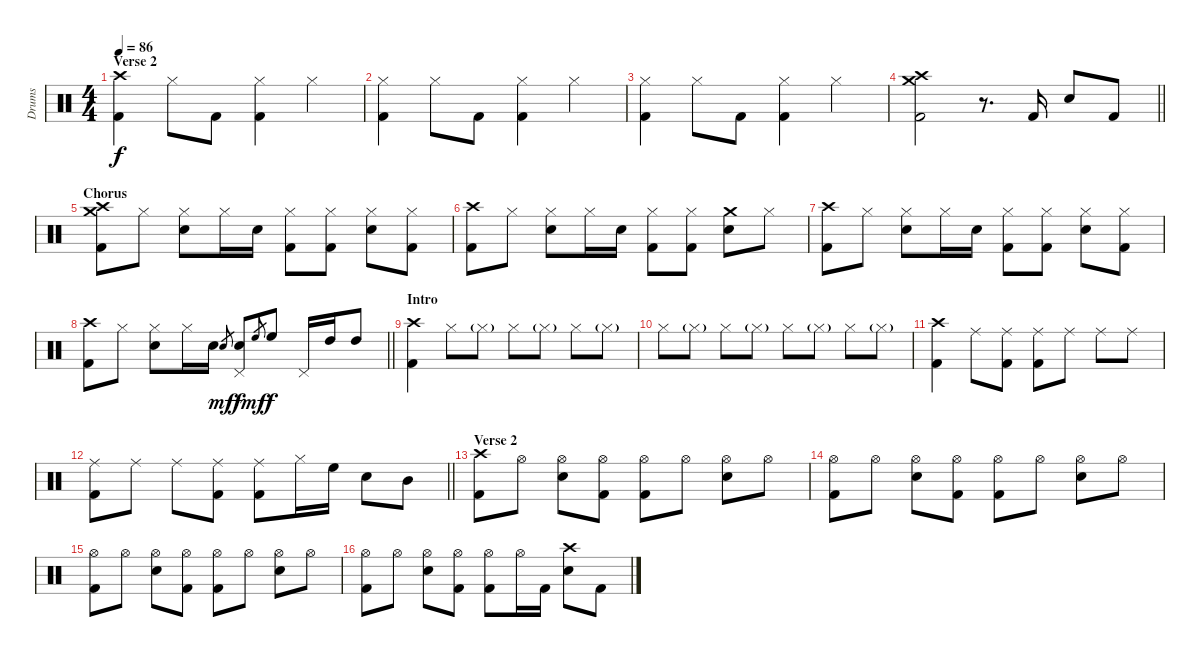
\track ("Drums" "Drums") {instrument percussion}
\staff {score}
\articulation defaults
\ts (4 4)
\section ("" "Verse 2")
\tempo 86
\clef neutral
\ks c
("Crash high (hit)" "Kick (hit) 2").4{dy f} "Hi-Hat (closed)".8 "Kick (hit) 2".8 ("Hi-Hat (closed)" "Kick (hit) 2").4 "Hi-Hat (closed)".4 |
("Hi-Hat (closed)" "Kick (hit) 2").4 "Hi-Hat (closed)".8 "Kick (hit) 2".8 ("Hi-Hat (closed)" "Kick (hit) 2").4 "Hi-Hat (closed)".4 |
("Hi-Hat (closed)" "Kick (hit) 2").4 "Hi-Hat (closed)".8 "Kick (hit) 2".8 ("Hi-Hat (closed)" "Kick (hit) 2").4 "Hi-Hat (closed)".4 |
\barLineRight lightlight
("Crash high (hit)" "Crash medium (hit)" "Kick (hit) 2").2 r.8{d} "Kick (hit) 2".16 "Snare (hit) 2".8 "Kick (hit) 2".8 |
\section ("" "Chorus")
("Crash high (hit)" "Crash medium (hit)" "Kick (hit) 2").8 "Hi-Hat (closed)".8 ("Hi-Hat (closed)" "Snare (hit) 2").8 "Hi-Hat (closed)".16 "Snare (hit) 2".16 ("Hi-Hat (closed)" "Kick (hit) 2").8 ("Hi-Hat (closed)" "Kick (hit) 2").8 ("Hi-Hat (closed)" "Snare (hit) 2").8 ("Hi-Hat (closed)" "Kick (hit) 2").8 |
("Crash high (hit)" "Kick (hit) 2").8 "Hi-Hat (closed)".8 ("Hi-Hat (closed)" "Snare (hit) 2").8 "Hi-Hat (closed)".16 "Snare (hit) 2".16 ("Hi-Hat (closed)" "Kick (hit) 2").8 ("Hi-Hat (closed)" "Kick (hit) 2").8 ("Crash medium (hit)" "Snare (hit) 2").8 "Hi-Hat (closed)".8 |
("Crash high (hit)" "Kick (hit) 2").8 "Hi-Hat (closed)".8 ("Hi-Hat (closed)" "Snare (hit) 2").8 "Hi-Hat (closed)".16 "Snare (hit) 2".16 ("Hi-Hat (closed)" "Kick (hit) 2").8 ("Hi-Hat (closed)" "Kick (hit) 2").8 ("Hi-Hat (closed)" "Snare (hit) 2").8 ("Hi-Hat (closed)" "Kick (hit) 2").8 |
\barLineRight lightlight
("Crash high (hit)" "Kick (hit) 2").8 "Hi-Hat (closed)".8 ("Hi-Hat (closed)" "Snare (hit) 2").8 "Hi-Hat (closed)".16 "Snare (hit) 2".16 "Snare (hit) 2".8{gr dy mf} ("Pedal Hi-Hat (hit)" "Snare (hit) 2").8{dy f} "High Floor Tom (hit)".8{gr dy mf} "High Floor Tom (hit)".8{dy f} "Pedal Hi-Hat (hit)".16 "High Tom (hit)".16 "High Tom (hit)".8 |
\section ("" "Intro")
("Crash high (hit)" "Kick (hit) 2").4 "Hi-Hat (closed)".8 "Hi-Hat (closed)"{g}.8 "Hi-Hat (closed)".8 "Hi-Hat (closed)"{g}.8 "Hi-Hat (closed)".8 "Hi-Hat (closed)"{g}.8 |
"Hi-Hat (closed)".8 "Hi-Hat (closed)"{g}.8 "Hi-Hat (closed)".8 "Hi-Hat (closed)"{g}.8 "Hi-Hat (closed)".8 "Hi-Hat (closed)"{g}.8 "Hi-Hat (closed)".8 "Hi-Hat (closed)"{g}.8 |
("Crash high (hit)" "Kick (hit) 2").4 "Ride (middle)".8 ("Ride (middle)" "Kick (hit) 2").8 ("Ride (middle)" "Kick (hit) 2").8 "Ride (middle)".8 "Ride (middle)".8 "Ride (middle)".8 |
\barLineRight lightlight
("Ride (middle)" "Kick (hit) 2").8 "Ride (middle)".8 "Ride (middle)".8 ("Ride (middle)" "Kick (hit) 2").8 ("Ride (middle)" "Kick (hit) 2").8 "Hi-Hat (closed)".16 "High Floor Tom (hit)".16 "Snare (hit) 2".8 "Mid Tom (hit)".8 |
\section ("" "Verse 2")
("Crash high (hit)" "Kick (hit) 2").8 "Hi-Hat (open)".8 ("Hi-Hat (open)" "Snare (hit) 2").8 ("Hi-Hat (open)" "Kick (hit) 2").8 ("Hi-Hat (open)" "Kick (hit) 2").8 "Hi-Hat (open)".8 ("Hi-Hat (open)" "Snare (hit) 2").8 "Hi-Hat (open)".8 |
("Hi-Hat (open)" "Kick (hit) 2").8 "Hi-Hat (open)".8 ("Hi-Hat (open)" "Snare (hit) 2").8 ("Hi-Hat (open)" "Kick (hit) 2").8 ("Hi-Hat (open)" "Kick (hit) 2").8 "Hi-Hat (open)".8 ("Hi-Hat (open)" "Snare (hit) 2").8 "Hi-Hat (open)".8 |
("Hi-Hat (open)" "Kick (hit) 2").8 "Hi-Hat (open)".8 ("Hi-Hat (open)" "Snare (hit) 2").8 ("Hi-Hat (open)" "Kick (hit) 2").8 ("Hi-Hat (open)" "Kick (hit) 2").8 "Hi-Hat (open)".8 ("Hi-Hat (open)" "Snare (hit) 2").8 "Hi-Hat (open)".8 |
("Hi-Hat (open)" "Kick (hit) 2").8 "Hi-Hat (open)".8 ("Hi-Hat (open)" "Snare (hit) 2").8 ("Hi-Hat (open)" "Kick (hit) 2").8 ("Hi-Hat (open)" "Kick (hit) 2").8 "Hi-Hat (open)".16 "Kick (hit) 2".16 ("Crash high (hit)" "Snare (hit) 2").8 "Kick (hit) 2".8
